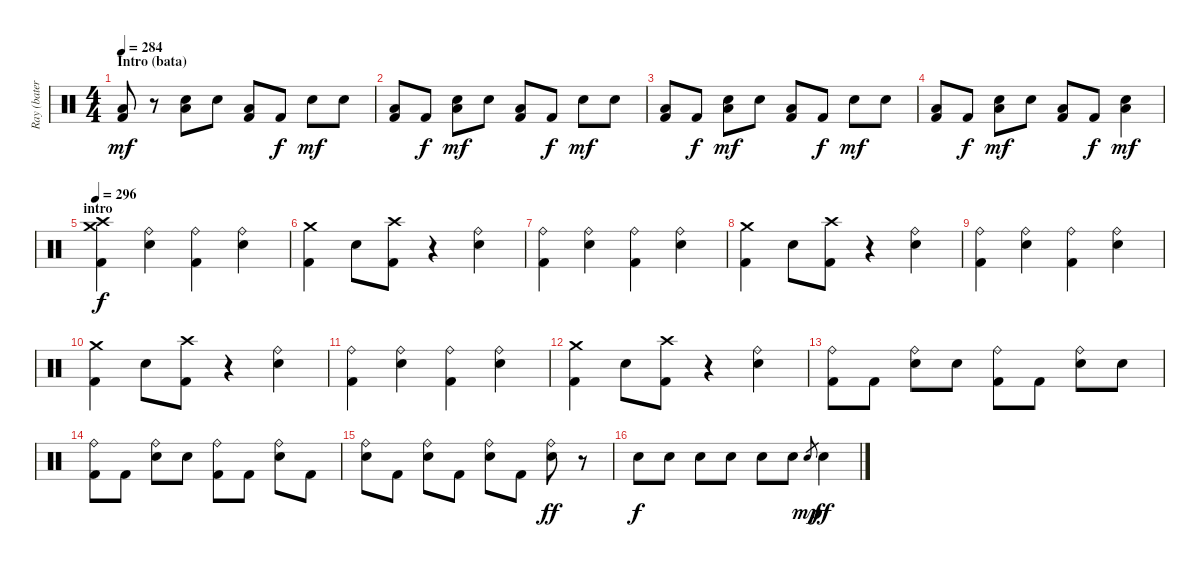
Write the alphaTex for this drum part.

\track ("Ray (batería)" "Ray (bater") {instrument percussion}
\staff {score}
\articulation defaults
\ts (4 4)
\section ("" "Intro (bata)")
\tempo 284
\tempo 300
\tempo 284
\clef neutral
\ks c
("Low Tom (hit)" "Kick (hit) 2").8{dy mf} r.8 ("Snare (hit) 2" "Low Tom (hit)").8 "Snare (hit) 2".8 ("Low Tom (hit)" "Kick (hit) 2").8 "Kick (hit) 2".8{dy f} "Snare (hit) 2".8{dy mf} "Snare (hit) 2".8 |
("Low Tom (hit)" "Kick (hit) 2").8 "Kick (hit) 2".8{dy f} ("Snare (hit) 2" "Low Tom (hit)").8{dy mf} "Snare (hit) 2".8 ("Low Tom (hit)" "Kick (hit) 2").8 "Kick (hit) 2".8{dy f} "Snare (hit) 2".8{dy mf} "Snare (hit) 2".8 |
("Low Tom (hit)" "Kick (hit) 2").8 "Kick (hit) 2".8{dy f} ("Snare (hit) 2" "Low Tom (hit)").8{dy mf} "Snare (hit) 2".8 ("Low Tom (hit)" "Kick (hit) 2").8 "Kick (hit) 2".8{dy f} "Snare (hit) 2".8{dy mf} "Snare (hit) 2".8 |
("Low Tom (hit)" "Kick (hit) 2").8 "Kick (hit) 2".8{dy f} ("Snare (hit) 2" "Low Tom (hit)").8{dy mf} "Snare (hit) 2".8 ("Low Tom (hit)" "Kick (hit) 2").8 "Kick (hit) 2".8{dy f} ("Snare (hit) 2" "Low Tom (hit)").4{dy mf} |
\section ("" "intro ")
\tempo 296
("Crash high (hit)" "Crash medium (hit)" "Kick (hit) 2").4{dy f} ("Ride (bell)" "Snare (hit) 2").4 ("Ride (bell)" "Kick (hit) 2").4 ("Ride (bell)" "Snare (hit) 2").4 |
("Crash medium (hit)" "Kick (hit) 2").4 "Snare (hit) 2".8 ("Crash high (hit)" "Kick (hit) 2").8 r.4 ("Ride (bell)" "Snare (hit) 2").4 |
("Ride (bell)" "Kick (hit) 2").4 ("Ride (bell)" "Snare (hit) 2").4 ("Ride (bell)" "Kick (hit) 2").4 ("Ride (bell)" "Snare (hit) 2").4 |
("Crash medium (hit)" "Kick (hit) 2").4 "Snare (hit) 2".8 ("Crash high (hit)" "Kick (hit) 2").8 r.4 ("Ride (bell)" "Snare (hit) 2").4 |
("Ride (bell)" "Kick (hit) 2").4 ("Ride (bell)" "Snare (hit) 2").4 ("Ride (bell)" "Kick (hit) 2").4 ("Ride (bell)" "Snare (hit) 2").4 |
("Crash medium (hit)" "Kick (hit) 2").4 "Snare (hit) 2".8 ("Crash high (hit)" "Kick (hit) 2").8 r.4 ("Ride (bell)" "Snare (hit) 2").4 |
("Ride (bell)" "Kick (hit) 2").4 ("Ride (bell)" "Snare (hit) 2").4 ("Ride (bell)" "Kick (hit) 2").4 ("Ride (bell)" "Snare (hit) 2").4 |
("Crash medium (hit)" "Kick (hit) 2").4 "Snare (hit) 2".8 ("Crash high (hit)" "Kick (hit) 2").8 r.4 ("Ride (bell)" "Snare (hit) 2").4 |
("Ride (bell)" "Kick (hit) 2").8 "Kick (hit) 2".8 ("Ride (bell)" "Snare (hit) 2").8 "Snare (hit) 2".8 ("Ride (bell)" "Kick (hit) 2").8 "Kick (hit) 2".8 ("Ride (bell)" "Snare (hit) 2").8 "Snare (hit) 2".8 |
("Ride (bell)" "Kick (hit) 2").8 "Kick (hit) 2".8 ("Ride (bell)" "Snare (hit) 2").8 "Snare (hit) 2".8 ("Ride (bell)" "Kick (hit) 2").8 "Kick (hit) 2".8 ("Ride (bell)" "Snare (hit) 2").8 "Kick (hit) 2".8 |
("Ride (bell)" "Snare (hit) 2").8 "Kick (hit) 2".8 ("Ride (bell)" "Snare (hit) 2").8 "Kick (hit) 2".8 ("Ride (bell)" "Snare (hit) 2").8 "Kick (hit) 2".8 ("Ride (bell)" "Snare (hit) 2").8{dy ff} r.8 |
"Snare (hit) 2".8{dy f} "Snare (hit) 2".8 "Snare (hit) 2".8 "Snare (hit) 2".8 "Snare (hit) 2".8 "Snare (hit) 2".8 "Snare (hit) 2".8{gr dy mp} "Snare (hit) 2".4{dy ff}
